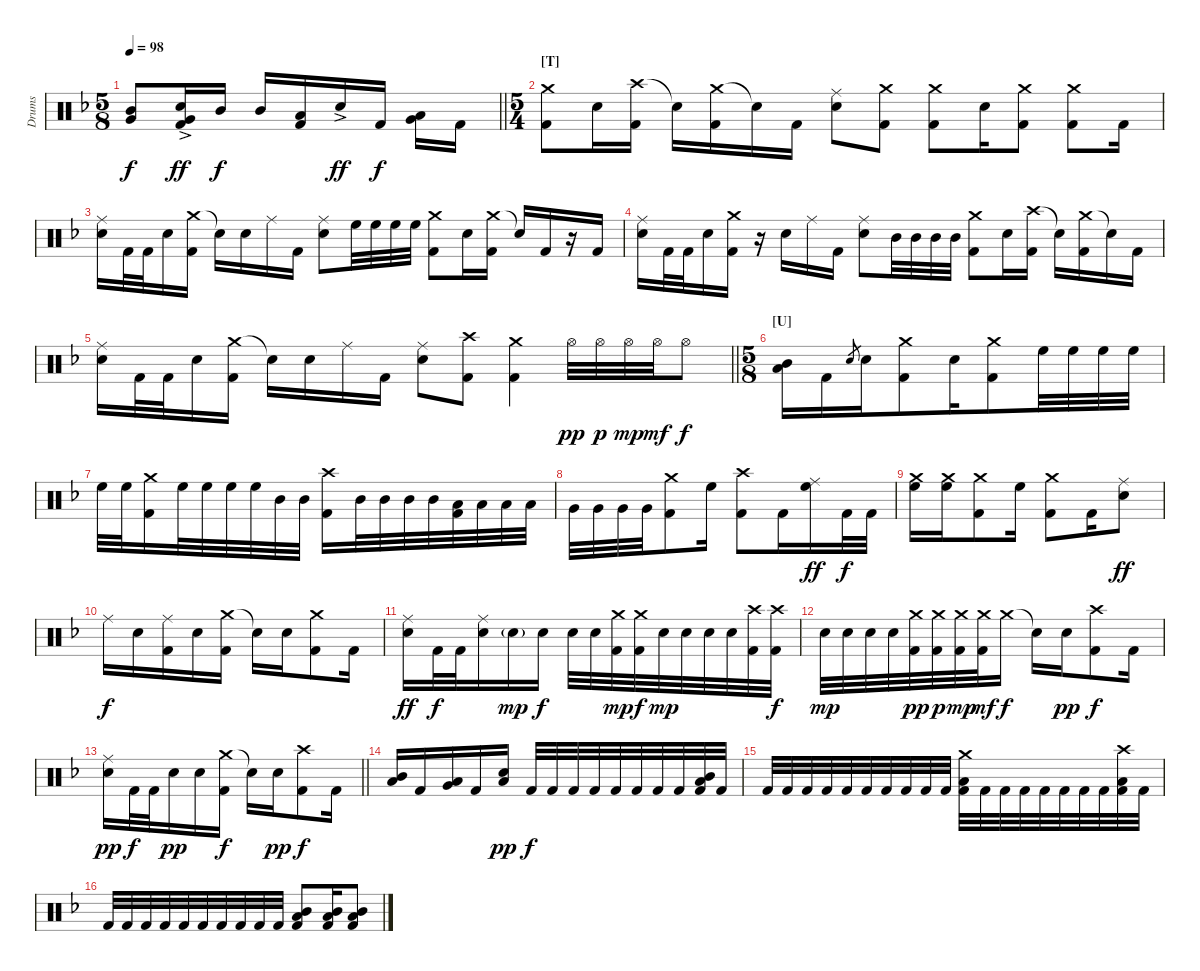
\track ("Drums" "Drums") {instrument percussion}
\staff {score}
\articulation defaults
\ts (5 8)
\tempo 98
\clef neutral
\barLineRight lightlight
\ks dminor
("Mid Tom (hit)" "Very Low Tom (hit)").8{dy f beam merge} ("Hand Clap (hit)"{ac} "Very Low Tom (hit)" "Kick (hit) 2").16{dy ff} "Mid Tom (hit)".16{dy f beam split} "Mid Tom (hit)".16 ("Low Tom (hit)" "Kick (hit) 2").16{beam merge} "Hand Clap (hit)"{ac}.16{dy ff} "Kick (hit) 2".16{dy f beam split} ("Low Tom (hit)" "Very Low Tom (hit)").16{beam Down} "Kick (hit) 2".16{beam Down} |
\ts (5 4)
\section ("" "[T]")
("Crash medium (hit)" "Kick (hit) 2").8 "Electric Snare (hit)".16 ("Crash high (hit)" "Kick (hit) 2").16 "Snare (hit)"{t}.16 ("Crash medium (hit)" "Kick (hit) 2").16 "Snare (hit)"{t}.16 "Kick (hit) 2".16 ("Ride (middle)" "Electric Snare (hit)").8 ("Crash medium (hit)" "Kick (hit) 2").8 ("Crash medium (hit)" "Kick (hit) 2").8 "Electric Snare (hit)".16 ("Crash medium (hit)" "Kick (hit) 2").8 ("Crash medium (hit)" "Kick (hit) 2").8 "Kick (hit) 2".16 |
("Ride (middle)" "Electric Snare (hit)").16 "Kick (hit) 2".32 "Kick (hit) 2".32 "Electric Snare (hit)".16 ("Crash medium (hit)" "Kick (hit) 2").16 "Snare (hit)"{t}.16 "Electric Snare (hit)".16 "Ride (middle)".16 "Kick (hit) 2".16 ("Ride (middle)" "Electric Snare (hit)").8 "High Floor Tom (hit)".32 "High Floor Tom (hit)".32 "High Floor Tom (hit)".32 "High Floor Tom (hit)".32 ("Crash medium (hit)" "Kick (hit) 2").8 "Electric Snare (hit)".16 ("Crash medium (hit)" "Kick (hit) 2").16 "Snare (hit)"{t}.16 "Kick (hit) 2".16 r.16 "Kick (hit) 2".16 |
("Ride (middle)" "Electric Snare (hit)").16 "Kick (hit) 2".32 "Kick (hit) 2".32 "Electric Snare (hit)".16 ("Crash medium (hit)" "Kick (hit) 2").16 r.16 "Electric Snare (hit)".16 "Ride (middle)".16 "Kick (hit) 2".16 ("Ride (middle)" "Electric Snare (hit)").8 "Mid Tom (hit)".32 "Mid Tom (hit)".32 "Mid Tom (hit)".32 "Mid Tom (hit)".32 ("Crash medium (hit)" "Kick (hit) 2").8 "Electric Snare (hit)".16 ("Crash high (hit)" "Kick (hit) 2").16 "Snare (hit)"{t}.16 ("Crash medium (hit)" "Kick (hit) 2").16 "Snare (hit)"{t}.16 "Kick (hit) 2".16 |
\barLineRight lightlight
("Ride (middle)" "Electric Snare (hit)").16 "Kick (hit) 2".32 "Kick (hit) 2".32 "Electric Snare (hit)".16 ("Crash medium (hit)" "Kick (hit) 2").16 "Snare (hit)"{t}.16 "Electric Snare (hit)".16 "Ride (middle)".16 "Kick (hit) 2".16 ("Ride (middle)" "Electric Snare (hit)").8 ("Crash high (hit)" "Kick (hit) 2").8 ("Crash medium (hit)" "Kick (hit) 2").4 "Hi-Hat (open)".32{dy pp} "Hi-Hat (open)".32{dy p} "Hi-Hat (open)".32{dy mp} "Hi-Hat (open)".32{dy mf} "Hi-Hat (open)".8{dy f} |
\ts (5 8)
\section ("" "[U]")
("Mid Tom (hit)" "Low Tom (hit)").16 "Kick (hit) 2".16 "Electric Snare (hit)".8{gr beam merge} "Electric Snare (hit)".16 ("Crash medium (hit)" "Kick (hit) 2").8 "Electric Snare (hit)".16{beam merge} ("Crash medium (hit)" "Kick (hit) 2").8{beam merge} "High Floor Tom (hit)".32 "High Floor Tom (hit)".32 "High Floor Tom (hit)".32 "High Floor Tom (hit)".32 |
"High Floor Tom (hit)".32 "High Floor Tom (hit)".32 ("Crash medium (hit)" "Kick (hit) 2").16{beam merge} "High Floor Tom (hit)".32 "High Floor Tom (hit)".32 "High Floor Tom (hit)".32 "High Floor Tom (hit)".32{beam merge} "Mid Tom (hit)".32 "Mid Tom (hit)".32{beam split} ("Crash high (hit)" "Kick (hit) 2").16{beam merge} "Mid Tom (hit)".32 "Mid Tom (hit)".32 "Mid Tom (hit)".32 "Mid Tom (hit)".32{beam merge} ("Low Tom (hit)" "Kick (hit) 2").32 "Low Tom (hit)".32 "Low Tom (hit)".32 "Low Tom (hit)".32 |
"Very Low Tom (hit)".32 "Very Low Tom (hit)".32 "Very Low Tom (hit)".32 "Very Low Tom (hit)".32{beam merge} ("Crash medium (hit)" "Kick (hit) 2").8{beam merge} "High Floor Tom (hit)".16{beam split} ("Crash high (hit)" "Kick (hit) 2").8{beam merge} "Kick (hit) 2".16{beam merge} ("Ride (middle)" "High Floor Tom (hit)").16{dy ff} "Kick (hit) 2".32{dy f} "Kick (hit) 2".32 |
("Crash medium (hit)" "High Floor Tom (hit)").16 ("Crash medium (hit)" "High Floor Tom (hit)").16{beam merge} ("Crash medium (hit)" "Kick (hit) 2").8{beam merge} "High Floor Tom (hit)".16{beam split} ("Crash medium (hit)" "Kick (hit) 2").8{beam merge} "Kick (hit) 2".16{beam merge} ("Ride (middle)" "Electric Snare (hit)").8{dy ff} |
"Ride (middle)".16{dy f} "Electric Snare (hit)".16{beam merge} ("Ride (middle)" "Kick (hit) 2").16 "Electric Snare (hit)".16{beam merge} ("Crash medium (hit)" "Kick (hit) 2").16{beam split} "Snare (hit)"{t}.16{beam merge} "Electric Snare (hit)".16 ("Crash medium (hit)" "Kick (hit) 2").8{beam merge} "Kick (hit) 2".16 |
("Ride (middle)" "Electric Snare (hit)").16{dy ff} "Kick (hit) 2".32{dy f} "Kick (hit) 2".32{beam merge} ("Ride (middle)" "Electric Snare (hit)").16 "Electric Snare (hit)"{g}.16{dy mp beam merge} "Electric Snare (hit)".16{dy f beam split} "Electric Snare (hit)".32 "Electric Snare (hit)".32{beam merge} ("Crash medium (hit)" "Kick (hit) 2").32{dy mp} ("Crash medium (hit)" "Kick (hit) 2").32{dy f} "Electric Snare (hit)".32{dy mp} "Electric Snare (hit)".32{beam merge} "Electric Snare (hit)".32 "Electric Snare (hit)".32 ("Crash high (hit)" "Kick (hit) 2").32 ("Crash high (hit)" "Kick (hit) 2").32{dy f} |
"Electric Snare (hit)".32{dy mp} "Electric Snare (hit)".32 "Electric Snare (hit)".32 "Electric Snare (hit)".32{beam merge} ("Crash medium (hit)" "Kick (hit) 2").32{dy pp} ("Crash medium (hit)" "Kick (hit) 2").32{dy p} ("Crash medium (hit)" "Kick (hit) 2").32{dy mp} ("Crash medium (hit)" "Kick (hit) 2").32{dy mf beam merge} "Crash medium (hit)".16{dy f beam split} "Snare (hit)"{t}.16{beam merge} "Electric Snare (hit)".16{dy pp} ("Crash high (hit)" "Kick (hit) 2").8{dy f beam merge} "Kick (hit) 2".16 |
\barLineRight lightlight
("Ride (middle)" "Electric Snare (hit)").16{dy pp} "Kick (hit) 2".32{dy f} "Kick (hit) 2".32{beam merge} "Electric Snare (hit)".16{dy pp} "Electric Snare (hit)".16{beam merge} ("Crash medium (hit)" "Kick (hit) 2").16{dy f beam split} "Snare (hit)"{t}.16{beam merge} "Electric Snare (hit)".16{dy pp} ("Crash high (hit)" "Kick (hit) 2").8{dy f beam merge} "Kick (hit) 2".16 |
("Mid Tom (hit)" "Low Tom (hit)").16 "Kick (hit) 2".16{beam merge} ("Low Tom (hit)" "Very Low Tom (hit)").16 "Kick (hit) 2".16{beam merge} ("Electric Snare (hit)" "Low Tom (hit)").16{dy pp beam split} "Kick (hit) 2".32{dy f} "Kick (hit) 2".32{beam merge} "Kick (hit) 2".32 "Kick (hit) 2".32 "Kick (hit) 2".32 "Kick (hit) 2".32{beam merge} "Kick (hit) 2".32 "Kick (hit) 2".32 ("Mid Tom (hit)" "Low Tom (hit)" "Kick (hit) 2").32 "Kick (hit) 2".32 |
"Kick (hit) 2".32 "Kick (hit) 2".32 "Kick (hit) 2".32 "Kick (hit) 2".32{beam merge} "Kick (hit) 2".32 "Kick (hit) 2".32 "Kick (hit) 2".32 "Kick (hit) 2".32{beam merge} "Kick (hit) 2".32 "Kick (hit) 2".32{beam split} ("Crash medium (hit)" "Low Tom (hit)" "Kick (hit) 2").32 "Kick (hit) 2".32{beam merge} "Kick (hit) 2".32 "Kick (hit) 2".32 "Kick (hit) 2".32 "Kick (hit) 2".32{beam merge} "Kick (hit) 2".32 "Kick (hit) 2".32 ("Crash high (hit)" "Low Tom (hit)" "Kick (hit) 2").32 "Kick (hit) 2".32 |
"Kick (hit) 2".32 "Kick (hit) 2".32 "Kick (hit) 2".32 "Kick (hit) 2".32{beam merge} "Kick (hit) 2".32 "Kick (hit) 2".32 "Kick (hit) 2".32 "Kick (hit) 2".32{beam merge} "Kick (hit) 2".32 "Kick (hit) 2".32{beam split} ("Mid Tom (hit)" "Low Tom (hit)" "Kick (hit) 2").8{beam merge} ("Mid Tom (hit)" "Low Tom (hit)" "Kick (hit) 2").16{beam merge} ("Mid Tom (hit)" "Low Tom (hit)" "Kick (hit) 2").8
